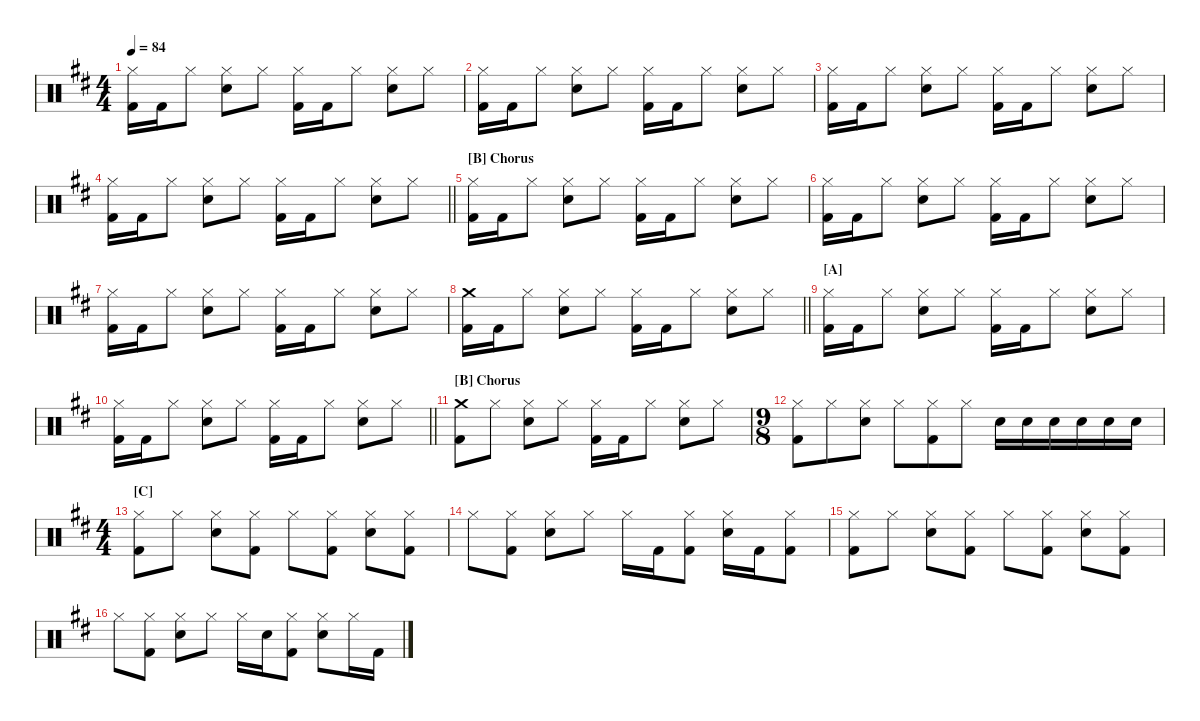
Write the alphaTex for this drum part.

\hideDynamics
\bracketExtendMode nobrackets
\singleTrackTrackNamePolicy hidden
\multiTrackTrackNamePolicy hidden
\otherSystemsTrackNameOrientation horizontal
\track ("Drumkit" "Drums") {instrument percussion}
\staff {score}
\articulation defaults
\ts (4 4)
\tempo 84
\clef neutral
\ks d
("Kick (hit) 2"{acc forcenatural} "Hi-Hat (closed)"{acc forcenatural}).16{dy f beam Down} "Kick (hit) 2"{acc forcenatural}.16{beam Down} "Hi-Hat (closed)"{acc forcenatural}.8{beam Down} ("Snare (hit) 2"{acc forcenatural} "Hi-Hat (closed)"{acc forcenatural}).8{beam Down} "Hi-Hat (closed)"{acc forcenatural}.8{beam Down} ("Kick (hit) 2"{acc forcenatural} "Hi-Hat (closed)"{acc forcenatural}).16{beam Down} "Kick (hit) 2"{acc forcenatural}.16{beam Down} "Hi-Hat (closed)"{acc forcenatural}.8{beam Down} ("Snare (hit) 2"{acc forcenatural} "Hi-Hat (closed)"{acc forcenatural}).8{beam Down} "Hi-Hat (closed)"{acc forcenatural}.8{beam Down} |
("Kick (hit) 2"{acc forcenatural} "Hi-Hat (closed)"{acc forcenatural}).16{beam Down} "Kick (hit) 2"{acc forcenatural}.16{beam Down} "Hi-Hat (closed)"{acc forcenatural}.8{beam Down} ("Snare (hit) 2"{acc forcenatural} "Hi-Hat (closed)"{acc forcenatural}).8{beam Down} "Hi-Hat (closed)"{acc forcenatural}.8{beam Down} ("Kick (hit) 2"{acc forcenatural} "Hi-Hat (closed)"{acc forcenatural}).16{beam Down} "Kick (hit) 2"{acc forcenatural}.16{beam Down} "Hi-Hat (closed)"{acc forcenatural}.8{beam Down} ("Snare (hit) 2"{acc forcenatural} "Hi-Hat (closed)"{acc forcenatural}).8{beam Down} "Hi-Hat (closed)"{acc forcenatural}.8{beam Down} |
("Kick (hit) 2"{acc forcenatural} "Hi-Hat (closed)"{acc forcenatural}).16{beam Down} "Kick (hit) 2"{acc forcenatural}.16{beam Down} "Hi-Hat (closed)"{acc forcenatural}.8{beam Down} ("Snare (hit) 2"{acc forcenatural} "Hi-Hat (closed)"{acc forcenatural}).8{beam Down} "Hi-Hat (closed)"{acc forcenatural}.8{beam Down} ("Kick (hit) 2"{acc forcenatural} "Hi-Hat (closed)"{acc forcenatural}).16{beam Down} "Kick (hit) 2"{acc forcenatural}.16{beam Down} "Hi-Hat (closed)"{acc forcenatural}.8{beam Down} ("Snare (hit) 2"{acc forcenatural} "Hi-Hat (closed)"{acc forcenatural}).8{beam Down} "Hi-Hat (closed)"{acc forcenatural}.8{beam Down} |
\barLineRight lightlight
("Kick (hit) 2"{acc forcenatural} "Hi-Hat (closed)"{acc forcenatural}).16{beam Down} "Kick (hit) 2"{acc forcenatural}.16{beam Down} "Hi-Hat (closed)"{acc forcenatural}.8{beam Down} ("Snare (hit) 2"{acc forcenatural} "Hi-Hat (closed)"{acc forcenatural}).8{beam Down} "Hi-Hat (closed)"{acc forcenatural}.8{beam Down} ("Kick (hit) 2"{acc forcenatural} "Hi-Hat (closed)"{acc forcenatural}).16{beam Down} "Kick (hit) 2"{acc forcenatural}.16{beam Down} "Hi-Hat (closed)"{acc forcenatural}.8{beam Down} ("Snare (hit) 2"{acc forcenatural} "Hi-Hat (closed)"{acc forcenatural}).8{beam Down} "Hi-Hat (closed)"{acc forcenatural}.8{beam Down} |
\section ("B" "Chorus")
("Kick (hit) 2"{acc forcenatural} "Hi-Hat (closed)"{acc forcenatural}).16{beam Down} "Kick (hit) 2"{acc forcenatural}.16{beam Down} "Hi-Hat (closed)"{acc forcenatural}.8{beam Down} ("Snare (hit) 2"{acc forcenatural} "Hi-Hat (closed)"{acc forcenatural}).8{beam Down} "Hi-Hat (closed)"{acc forcenatural}.8{beam Down} ("Kick (hit) 2"{acc forcenatural} "Hi-Hat (closed)"{acc forcenatural}).16{beam Down} "Kick (hit) 2"{acc forcenatural}.16{beam Down} "Hi-Hat (closed)"{acc forcenatural}.8{beam Down} ("Snare (hit) 2"{acc forcenatural} "Hi-Hat (closed)"{acc forcenatural}).8{beam Down} "Hi-Hat (closed)"{acc forcenatural}.8{beam Down} |
("Kick (hit) 2"{acc forcenatural} "Hi-Hat (closed)"{acc forcenatural}).16{beam Down} "Kick (hit) 2"{acc forcenatural}.16{beam Down} "Hi-Hat (closed)"{acc forcenatural}.8{beam Down} ("Snare (hit) 2"{acc forcenatural} "Hi-Hat (closed)"{acc forcenatural}).8{beam Down} "Hi-Hat (closed)"{acc forcenatural}.8{beam Down} ("Kick (hit) 2"{acc forcenatural} "Hi-Hat (closed)"{acc forcenatural}).16{beam Down} "Kick (hit) 2"{acc forcenatural}.16{beam Down} "Hi-Hat (closed)"{acc forcenatural}.8{beam Down} ("Snare (hit) 2"{acc forcenatural} "Hi-Hat (closed)"{acc forcenatural}).8{beam Down} "Hi-Hat (closed)"{acc forcenatural}.8{beam Down} |
("Kick (hit) 2"{acc forcenatural} "Hi-Hat (closed)"{acc forcenatural}).16{beam Down} "Kick (hit) 2"{acc forcenatural}.16{beam Down} "Hi-Hat (closed)"{acc forcenatural}.8{beam Down} ("Snare (hit) 2"{acc forcenatural} "Hi-Hat (closed)"{acc forcenatural}).8{beam Down} "Hi-Hat (closed)"{acc forcenatural}.8{beam Down} ("Kick (hit) 2"{acc forcenatural} "Hi-Hat (closed)"{acc forcenatural}).16{beam Down} "Kick (hit) 2"{acc forcenatural}.16{beam Down} "Hi-Hat (closed)"{acc forcenatural}.8{beam Down} ("Snare (hit) 2"{acc forcenatural} "Hi-Hat (closed)"{acc forcenatural}).8{beam Down} "Hi-Hat (closed)"{acc forcenatural}.8{beam Down} |
\barLineRight lightlight
("Kick (hit) 2"{acc forcenatural} "Crash medium (hit)"{acc forcenatural}).16{beam Down} "Kick (hit) 2"{acc forcenatural}.16{beam Down} "Hi-Hat (closed)"{acc forcenatural}.8{beam Down} ("Snare (hit) 2"{acc forcenatural} "Hi-Hat (closed)"{acc forcenatural}).8{beam Down} "Hi-Hat (closed)"{acc forcenatural}.8{beam Down} ("Kick (hit) 2"{acc forcenatural} "Hi-Hat (closed)"{acc forcenatural}).16{beam Down} "Kick (hit) 2"{acc forcenatural}.16{beam Down} "Hi-Hat (closed)"{acc forcenatural}.8{beam Down} ("Snare (hit) 2"{acc forcenatural} "Hi-Hat (closed)"{acc forcenatural}).8{beam Down} "Hi-Hat (closed)"{acc forcenatural}.8{beam Down} |
\section ("A" "")
("Kick (hit) 2"{acc forcenatural} "Hi-Hat (closed)"{acc forcenatural}).16{beam Down} "Kick (hit) 2"{acc forcenatural}.16{beam Down} "Hi-Hat (closed)"{acc forcenatural}.8{beam Down} ("Snare (hit) 2"{acc forcenatural} "Hi-Hat (closed)"{acc forcenatural}).8{beam Down} "Hi-Hat (closed)"{acc forcenatural}.8{beam Down} ("Kick (hit) 2"{acc forcenatural} "Hi-Hat (closed)"{acc forcenatural}).16{beam Down} "Kick (hit) 2"{acc forcenatural}.16{beam Down} "Hi-Hat (closed)"{acc forcenatural}.8{beam Down} ("Snare (hit) 2"{acc forcenatural} "Hi-Hat (closed)"{acc forcenatural}).8{beam Down} "Hi-Hat (closed)"{acc forcenatural}.8{beam Down} |
\barLineRight lightlight
("Kick (hit) 2"{acc forcenatural} "Hi-Hat (closed)"{acc forcenatural}).16{beam Down} "Kick (hit) 2"{acc forcenatural}.16{beam Down} "Hi-Hat (closed)"{acc forcenatural}.8{beam Down} ("Snare (hit) 2"{acc forcenatural} "Hi-Hat (closed)"{acc forcenatural}).8{beam Down} "Hi-Hat (closed)"{acc forcenatural}.8{beam Down} ("Kick (hit) 2"{acc forcenatural} "Hi-Hat (closed)"{acc forcenatural}).16{beam Down} "Kick (hit) 2"{acc forcenatural}.16{beam Down} "Hi-Hat (closed)"{acc forcenatural}.8{beam Down} ("Snare (hit) 2"{acc forcenatural} "Hi-Hat (closed)"{acc forcenatural}).8{beam Down} "Hi-Hat (closed)"{acc forcenatural}.8{beam Down} |
\section ("B" "Chorus")
("Kick (hit) 2"{acc forcenatural} "Crash medium (hit)"{acc forcenatural}).8{beam Down} "Hi-Hat (closed)"{acc forcenatural}.8{beam Down} ("Snare (hit) 2"{acc forcenatural} "Hi-Hat (closed)"{acc forcenatural}).8{beam Down} "Hi-Hat (closed)"{acc forcenatural}.8{beam Down} ("Kick (hit) 2"{acc forcenatural} "Hi-Hat (closed)"{acc forcenatural}).16{beam Down} "Kick (hit) 2"{acc forcenatural}.16{beam Down} "Hi-Hat (closed)"{acc forcenatural}.8{beam Down} ("Snare (hit) 2"{acc forcenatural} "Hi-Hat (closed)"{acc forcenatural}).8{beam Down} "Hi-Hat (closed)"{acc forcenatural}.8{beam Down} |
\ts (9 8)
\beaming (8 3 3 3)
("Kick (hit) 2"{acc forcenatural} "Hi-Hat (closed)"{acc forcenatural}).8{beam Down} "Hi-Hat (closed)"{acc forcenatural}.8{beam Down} ("Snare (hit) 2"{acc forcenatural} "Hi-Hat (closed)"{acc forcenatural}).8{beam Down} "Hi-Hat (closed)"{acc forcenatural}.8{beam Down} ("Kick (hit) 2"{acc forcenatural} "Hi-Hat (closed)"{acc forcenatural}).8{beam Down} "Hi-Hat (closed)"{acc forcenatural}.8{beam Down} "Snare (hit) 2"{acc forcenatural}.16{beam Down} "Snare (hit) 2"{acc forcenatural}.16{beam Down} "Snare (hit) 2"{acc forcenatural}.16{beam Down} "Snare (hit) 2"{acc forcenatural}.16{beam Down} "Snare (hit) 2"{acc forcenatural}.16{beam Down} "Snare (hit) 2"{acc forcenatural}.16{beam Down} |
\ts (4 4)
\beaming (8 2 2 2 2)
\section ("C" "")
("Kick (hit) 2"{acc forcenatural} "Hi-Hat (closed)"{acc forcenatural}).8{beam Down} "Hi-Hat (closed)"{acc forcenatural}.8{beam Down} ("Snare (hit) 2"{acc forcenatural} "Hi-Hat (closed)"{acc forcenatural}).8{beam Down} ("Kick (hit) 2"{acc forcenatural} "Hi-Hat (closed)"{acc forcenatural}).8{beam Down} "Hi-Hat (closed)"{acc forcenatural}.8{beam Down} ("Kick (hit) 2"{acc forcenatural} "Hi-Hat (closed)"{acc forcenatural}).8{beam Down} ("Snare (hit) 2"{acc forcenatural} "Hi-Hat (closed)"{acc forcenatural}).8{beam Down} ("Kick (hit) 2"{acc forcenatural} "Hi-Hat (closed)"{acc forcenatural}).8{beam Down} |
"Hi-Hat (closed)"{acc forcenatural}.8{beam Down} ("Kick (hit) 2"{acc forcenatural} "Hi-Hat (closed)"{acc forcenatural}).8{beam Down} ("Snare (hit) 2"{acc forcenatural} "Hi-Hat (closed)"{acc forcenatural}).8{beam Down} "Hi-Hat (closed)"{acc forcenatural}.8{beam Down} "Hi-Hat (closed)"{acc forcenatural}.16{beam Down} "Kick (hit) 2"{acc forcenatural}.16{beam Down} ("Kick (hit) 2"{acc forcenatural} "Hi-Hat (closed)"{acc forcenatural}).8{beam Down} ("Snare (hit) 2"{acc forcenatural} "Hi-Hat (closed)"{acc forcenatural}).16{beam Down} "Kick (hit) 2"{acc forcenatural}.16{beam Down} ("Kick (hit) 2"{acc forcenatural} "Hi-Hat (closed)"{acc forcenatural}).8{beam Down} |
("Kick (hit) 2"{acc forcenatural} "Hi-Hat (closed)"{acc forcenatural}).8{beam Down} "Hi-Hat (closed)"{acc forcenatural}.8{beam Down} ("Snare (hit) 2"{acc forcenatural} "Hi-Hat (closed)"{acc forcenatural}).8{beam Down} ("Kick (hit) 2"{acc forcenatural} "Hi-Hat (closed)"{acc forcenatural}).8{beam Down} "Hi-Hat (closed)"{acc forcenatural}.8{beam Down} ("Kick (hit) 2"{acc forcenatural} "Hi-Hat (closed)"{acc forcenatural}).8{beam Down} ("Snare (hit) 2"{acc forcenatural} "Hi-Hat (closed)"{acc forcenatural}).8{beam Down} ("Kick (hit) 2"{acc forcenatural} "Hi-Hat (closed)"{acc forcenatural}).8{beam Down} |
"Hi-Hat (closed)"{acc forcenatural}.8{beam Down} ("Kick (hit) 2"{acc forcenatural} "Hi-Hat (closed)"{acc forcenatural}).8{beam Down} ("Snare (hit) 2"{acc forcenatural} "Hi-Hat (closed)"{acc forcenatural}).8{beam Down} "Hi-Hat (closed)"{acc forcenatural}.8{beam Down} "Hi-Hat (closed)"{acc forcenatural}.16{beam Down} "Snare (hit) 2"{acc forcenatural}.16{beam Down} ("Kick (hit) 2"{acc forcenatural} "Hi-Hat (closed)"{acc forcenatural}).8{beam Down} ("Snare (hit) 2"{acc forcenatural} "Hi-Hat (closed)"{acc forcenatural}).8{beam Down} "Hi-Hat (closed)"{acc forcenatural}.16{beam Down} "Kick (hit) 2"{acc forcenatural}.16{beam Down}
